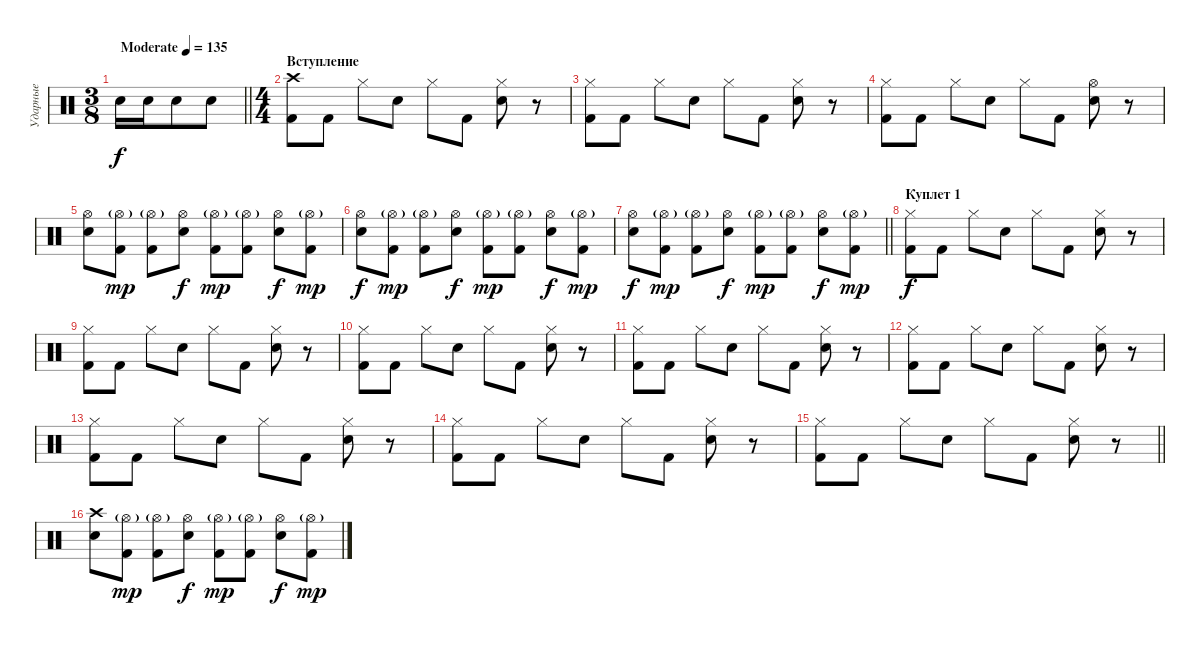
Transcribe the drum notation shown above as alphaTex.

\track ("Ударные" "Ударные") {instrument percussion}
\staff {score}
\articulation defaults
\ts (3 8)
\tempo (135 "Moderate")
\clef neutral
\barLineRight lightlight
\ks c "Electric Snare (hit)".16{dy f} "Electric Snare (hit)".16 "Electric Snare (hit)".8 "Electric Snare (hit)".8
|
\ts (4 4)
\section ("" "Вступление")
("Crash high (hit)" "Kick (hit) 2").8 "Kick (hit) 2".8 "Hi-Hat (closed)".8 "Electric Snare (hit)".8 "Hi-Hat (closed)".8 "Kick (hit) 2".8 ("Hi-Hat (closed)" "Electric Snare (hit)").8 r.8 |
("Hi-Hat (closed)" "Kick (hit) 2").8 "Kick (hit) 2".8 "Hi-Hat (closed)".8 "Electric Snare (hit)".8 "Hi-Hat (closed)".8 "Kick (hit) 2".8 ("Hi-Hat (closed)" "Electric Snare (hit)").8 r.8 |
("Hi-Hat (closed)" "Kick (hit) 2").8 "Kick (hit) 2".8 "Hi-Hat (closed)".8 "Electric Snare (hit)".8 "Hi-Hat (closed)".8 "Kick (hit) 2".8 ("Hi-Hat (open)" "Electric Snare (hit)").8 r.8 |
("Hi-Hat (open)" "Electric Snare (hit)").8 ("Hi-Hat (open)"{g} "Kick (hit) 2").8{dy mp} ("Hi-Hat (open)"{g} "Kick (hit) 2").8 ("Hi-Hat (open)" "Electric Snare (hit)").8{dy f} ("Hi-Hat (open)"{g} "Kick (hit) 2").8{dy mp} ("Hi-Hat (open)"{g} "Kick (hit) 2").8 ("Hi-Hat (open)" "Electric Snare (hit)").8{dy f} ("Hi-Hat (open)"{g} "Kick (hit) 2").8{dy mp} |
("Hi-Hat (open)" "Electric Snare (hit)").8{dy f} ("Hi-Hat (open)"{g} "Kick (hit) 2").8{dy mp} ("Hi-Hat (open)"{g} "Kick (hit) 2").8 ("Hi-Hat (open)" "Electric Snare (hit)").8{dy f} ("Hi-Hat (open)"{g} "Kick (hit) 2").8{dy mp} ("Hi-Hat (open)"{g} "Kick (hit) 2").8 ("Hi-Hat (open)" "Electric Snare (hit)").8{dy f} ("Hi-Hat (open)"{g} "Kick (hit) 2").8{dy mp} |
\barLineRight lightlight
("Hi-Hat (open)" "Electric Snare (hit)").8{dy f} ("Hi-Hat (open)"{g} "Kick (hit) 2").8{dy mp} ("Hi-Hat (open)"{g} "Kick (hit) 2").8 ("Hi-Hat (open)" "Electric Snare (hit)").8{dy f} ("Hi-Hat (open)"{g} "Kick (hit) 2").8{dy mp} ("Hi-Hat (open)"{g} "Kick (hit) 2").8 ("Hi-Hat (open)" "Electric Snare (hit)").8{dy f} ("Hi-Hat (open)"{g} "Kick (hit) 2").8{dy mp} |
\section ("" "Куплет 1")
("Hi-Hat (closed)" "Kick (hit) 2").8{dy f} "Kick (hit) 2".8 "Hi-Hat (closed)".8 "Electric Snare (hit)".8 "Hi-Hat (closed)".8 "Kick (hit) 2".8 ("Hi-Hat (closed)" "Electric Snare (hit)").8 r.8 |
("Hi-Hat (closed)" "Kick (hit) 2").8 "Kick (hit) 2".8 "Hi-Hat (closed)".8 "Electric Snare (hit)".8 "Hi-Hat (closed)".8 "Kick (hit) 2".8 ("Hi-Hat (closed)" "Electric Snare (hit)").8 r.8 |
("Hi-Hat (closed)" "Kick (hit) 2").8 "Kick (hit) 2".8 "Hi-Hat (closed)".8 "Electric Snare (hit)".8 "Hi-Hat (closed)".8 "Kick (hit) 2".8 ("Hi-Hat (closed)" "Electric Snare (hit)").8 r.8 |
("Hi-Hat (closed)" "Kick (hit) 2").8 "Kick (hit) 2".8 "Hi-Hat (closed)".8 "Electric Snare (hit)".8 "Hi-Hat (closed)".8 "Kick (hit) 2".8 ("Hi-Hat (closed)" "Electric Snare (hit)").8 r.8 |
("Hi-Hat (closed)" "Kick (hit) 2").8 "Kick (hit) 2".8 "Hi-Hat (closed)".8 "Electric Snare (hit)".8 "Hi-Hat (closed)".8 "Kick (hit) 2".8 ("Hi-Hat (closed)" "Electric Snare (hit)").8 r.8 |
("Hi-Hat (closed)" "Kick (hit) 2").8 "Kick (hit) 2".8 "Hi-Hat (closed)".8 "Electric Snare (hit)".8 "Hi-Hat (closed)".8 "Kick (hit) 2".8 ("Hi-Hat (closed)" "Electric Snare (hit)").8 r.8 |
("Hi-Hat (closed)" "Kick (hit) 2").8 "Kick (hit) 2".8 "Hi-Hat (closed)".8 "Electric Snare (hit)".8 "Hi-Hat (closed)".8 "Kick (hit) 2".8 ("Hi-Hat (closed)" "Electric Snare (hit)").8 r.8 |
\barLineRight lightlight
("Hi-Hat (closed)" "Kick (hit) 2").8 "Kick (hit) 2".8 "Hi-Hat (closed)".8 "Electric Snare (hit)".8 "Hi-Hat (closed)".8 "Kick (hit) 2".8 ("Hi-Hat (closed)" "Electric Snare (hit)").8 r.8 |
\section ("" "")
("Crash high (hit)" "Electric Snare (hit)").8 ("Hi-Hat (open)"{g} "Kick (hit) 2").8{dy mp} ("Hi-Hat (open)"{g} "Kick (hit) 2").8 ("Hi-Hat (open)" "Electric Snare (hit)").8{dy f} ("Hi-Hat (open)"{g} "Kick (hit) 2").8{dy mp} ("Hi-Hat (open)"{g} "Kick (hit) 2").8 ("Hi-Hat (open)" "Electric Snare (hit)").8{dy f} ("Hi-Hat (open)"{g} "Kick (hit) 2").8{dy mp}
